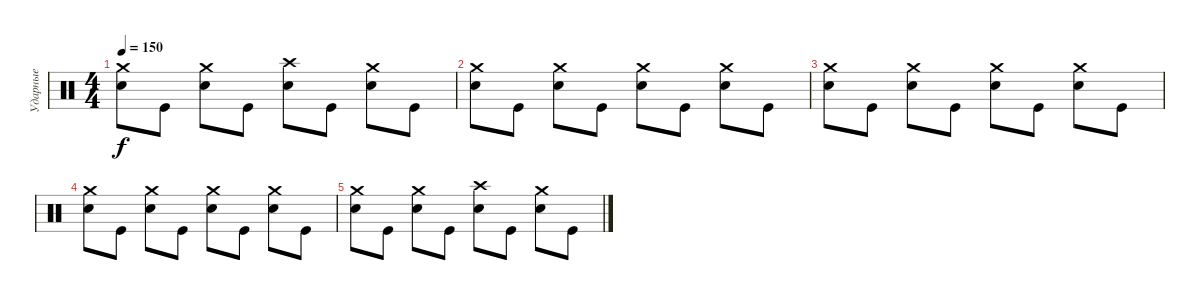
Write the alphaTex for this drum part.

\track ("Ударные" "Ударные") {instrument percussion}
\staff {score}
\articulation defaults
\ts (4 4)
\tempo 150
\clef neutral
\ks c
("Crash medium (hit)" "Electric Snare (hit)").8{dy f} "Kick (hit)".8 ("Crash medium (hit)" "Electric Snare (hit)").8 "Kick (hit)".8 ("Crash high (hit)" "Electric Snare (hit)").8 "Kick (hit)".8 ("Crash medium (hit)" "Electric Snare (hit)").8 "Kick (hit)".8 |
("Crash medium (hit)" "Electric Snare (hit)").8{volume 0} "Kick (hit)".8 ("Crash medium (hit)" "Electric Snare (hit)").8 "Kick (hit)".8 ("Crash medium (hit)" "Electric Snare (hit)").8 "Kick (hit)".8 ("Crash medium (hit)" "Electric Snare (hit)").8 "Kick (hit)".8 |
("Crash medium (hit)" "Electric Snare (hit)").8 "Kick (hit)".8 ("Crash medium (hit)" "Electric Snare (hit)").8 "Kick (hit)".8 ("Crash medium (hit)" "Electric Snare (hit)").8 "Kick (hit)".8 ("Crash medium (hit)" "Electric Snare (hit)").8 "Kick (hit)".8 |
("Crash medium (hit)" "Electric Snare (hit)").8 "Kick (hit)".8 ("Crash medium (hit)" "Electric Snare (hit)").8 "Kick (hit)".8 ("Crash medium (hit)" "Electric Snare (hit)").8 "Kick (hit)".8 ("Crash medium (hit)" "Electric Snare (hit)").8 "Kick (hit)".8 |
("Crash medium (hit)" "Electric Snare (hit)").8 "Kick (hit)".8 ("Crash medium (hit)" "Electric Snare (hit)").8 "Kick (hit)".8 ("Crash high (hit)" "Electric Snare (hit)").8 "Kick (hit)".8 ("Crash medium (hit)" "Electric Snare (hit)").8 "Kick (hit)".8
